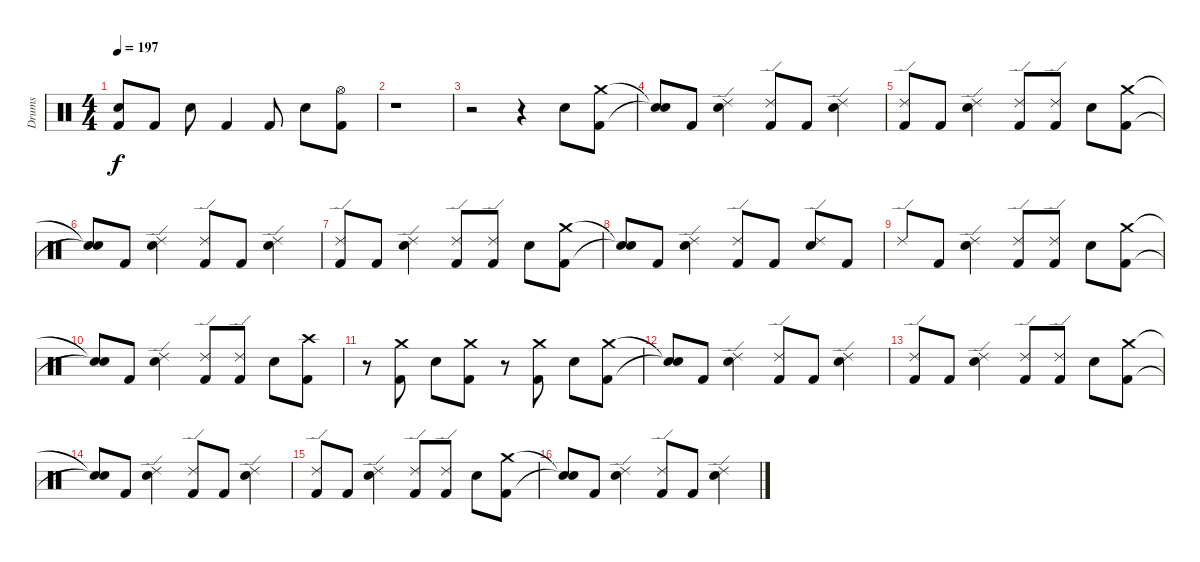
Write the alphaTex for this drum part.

\track ("Drums" "Drums") {instrument percussion}
\staff {score}
\articulation defaults
\ts (4 4)
\tempo 197
\clef neutral
\ks c
("Snare (hit)"{t} "Kick (hit) 2"{t}).8{dy f} "Kick (hit) 2".8 "Electric Snare (hit)".8 "Kick (hit) 2".4 "Kick (hit) 2".8 "Electric Snare (hit)".8 ("Hi-Hat (open)" "Kick (hit) 2").8 |
\section ("" "")
r.1 |
r.2 r.4 "Electric Snare (hit)".8 ("Crash medium (hit)" "Kick (hit) 2").8 |
\section ("" "")
("Snare (hit)"{t} "Snare (hit)"{t}).8 "Kick (hit) 2".8 ("Ride (edge) 2" "Electric Snare (hit)").4 ("Ride (edge) 2" "Kick (hit) 2").8 "Kick (hit) 2".8 ("Ride (edge) 2" "Electric Snare (hit)").4 |
("Ride (edge) 2" "Kick (hit) 2").8 "Kick (hit) 2".8 ("Ride (edge) 2" "Electric Snare (hit)").4 ("Ride (edge) 2" "Kick (hit) 2").8 ("Ride (edge) 2" "Kick (hit) 2").8 "Electric Snare (hit)".8 ("Crash medium (hit)" "Kick (hit) 2").8 |
("Snare (hit)"{t} "Snare (hit)"{t}).8 "Kick (hit) 2".8 ("Ride (edge) 2" "Electric Snare (hit)").4 ("Ride (edge) 2" "Kick (hit) 2").8 "Kick (hit) 2".8 ("Ride (edge) 2" "Electric Snare (hit)").4 |
("Ride (edge) 2" "Kick (hit) 2").8 "Kick (hit) 2".8 ("Ride (edge) 2" "Electric Snare (hit)").4 ("Ride (edge) 2" "Kick (hit) 2").8 ("Ride (edge) 2" "Kick (hit) 2").8 "Electric Snare (hit)".8 ("Crash medium (hit)" "Kick (hit) 2").8 |
("Snare (hit)"{t} "Snare (hit)"{t}).8 "Kick (hit) 2".8 ("Ride (edge) 2" "Electric Snare (hit)").4 ("Ride (edge) 2" "Kick (hit) 2").8 "Kick (hit) 2".8 ("Ride (edge) 2" "Electric Snare (hit)").8 "Kick (hit) 2".8 |
"Ride (edge) 2".8 "Kick (hit) 2".8 ("Ride (edge) 2" "Electric Snare (hit)").4 ("Ride (edge) 2" "Kick (hit) 2").8 ("Ride (edge) 2" "Kick (hit) 2").8 "Electric Snare (hit)".8 ("Crash medium (hit)" "Kick (hit) 2").8 |
("Snare (hit)"{t} "Snare (hit)"{t}).8 "Kick (hit) 2".8 ("Ride (edge) 2" "Electric Snare (hit)").4 ("Ride (edge) 2" "Kick (hit) 2").8 ("Ride (edge) 2" "Kick (hit) 2").8 "Electric Snare (hit)".8 ("Crash high (hit)" "Kick (hit) 2").8 |
r.8 ("Crash medium (hit)" "Kick (hit) 2").8 "Electric Snare (hit)".8 ("Crash medium (hit)" "Kick (hit) 2").8 r.8 ("Crash medium (hit)" "Kick (hit) 2").8 "Electric Snare (hit)".8 ("Crash medium (hit)" "Kick (hit) 2").8 |
\section ("" "")
("Snare (hit)"{t} "Snare (hit)"{t}).8 "Kick (hit) 2".8 ("Ride (edge) 2" "Electric Snare (hit)").4 ("Ride (edge) 2" "Kick (hit) 2").8 "Kick (hit) 2".8 ("Ride (edge) 2" "Electric Snare (hit)").4 |
("Ride (edge) 2" "Kick (hit) 2").8 "Kick (hit) 2".8 ("Ride (edge) 2" "Electric Snare (hit)").4 ("Ride (edge) 2" "Kick (hit) 2").8 ("Ride (edge) 2" "Kick (hit) 2").8 "Electric Snare (hit)".8 ("Crash medium (hit)" "Kick (hit) 2").8 |
("Snare (hit)"{t} "Snare (hit)"{t}).8 "Kick (hit) 2".8 ("Ride (edge) 2" "Electric Snare (hit)").4 ("Ride (edge) 2" "Kick (hit) 2").8 "Kick (hit) 2".8 ("Ride (edge) 2" "Electric Snare (hit)").4 |
("Ride (edge) 2" "Kick (hit) 2").8 "Kick (hit) 2".8 ("Ride (edge) 2" "Electric Snare (hit)").4 ("Ride (edge) 2" "Kick (hit) 2").8 ("Ride (edge) 2" "Kick (hit) 2").8 "Electric Snare (hit)".8 ("Crash medium (hit)" "Kick (hit) 2").8 |
("Snare (hit)"{t} "Snare (hit)"{t}).8 "Kick (hit) 2".8 ("Ride (edge) 2" "Electric Snare (hit)").4 ("Ride (edge) 2" "Kick (hit) 2").8 "Kick (hit) 2".8 ("Ride (edge) 2" "Electric Snare (hit)").4
